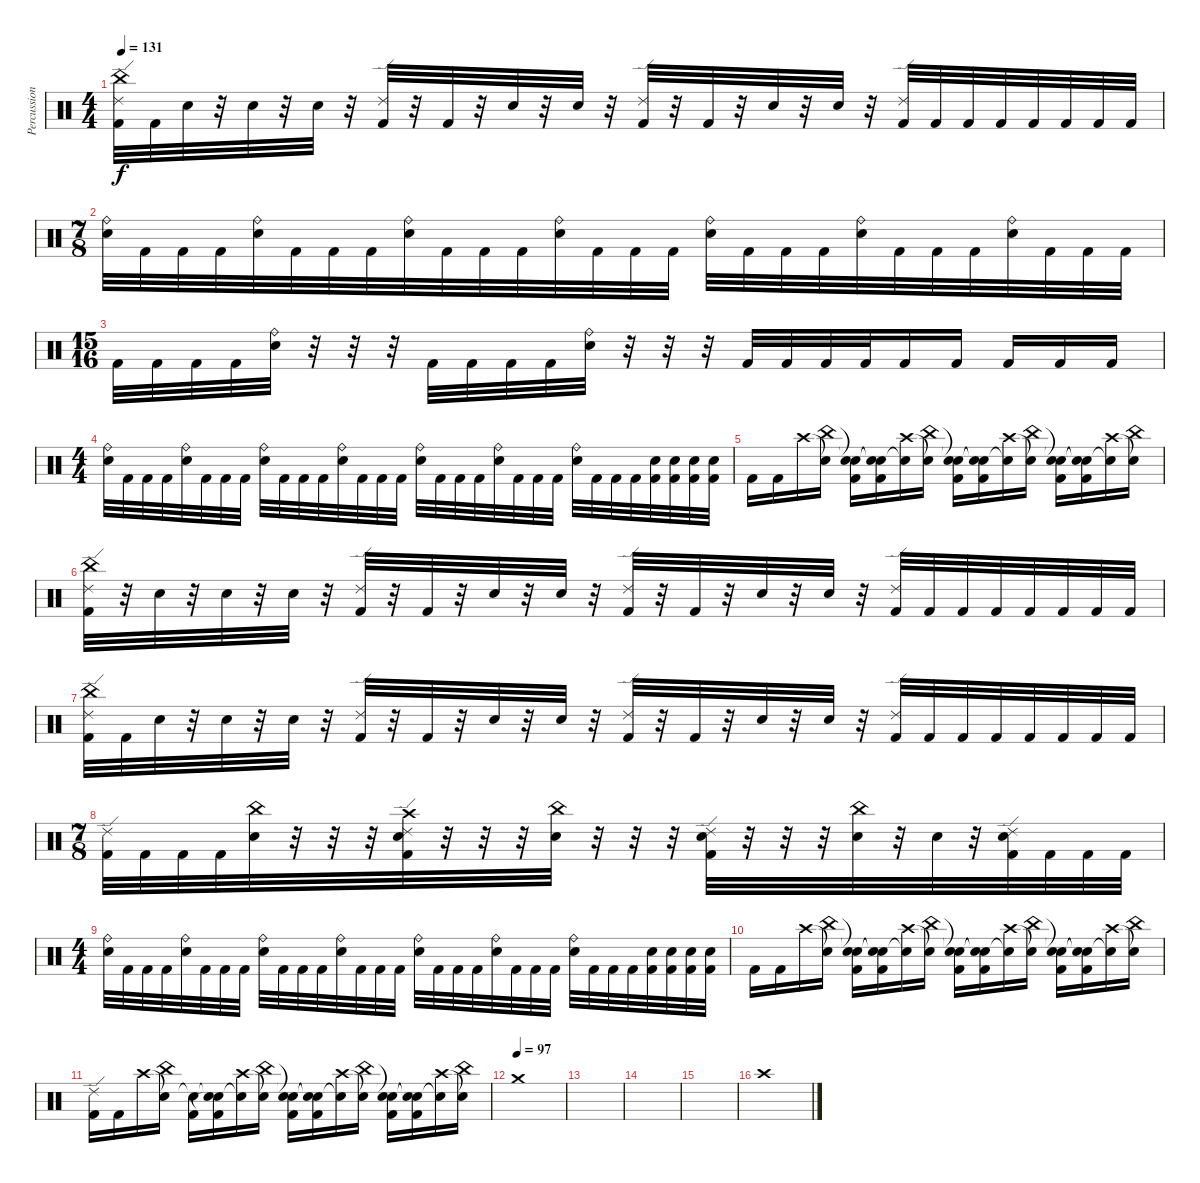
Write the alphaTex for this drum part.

\track ("Percussion" "Percussion") {instrument percussion}
\staff {score}
\articulation defaults
\ts (4 4)
\tempo 131
\clef neutral
\ks c
("China (hit)" "Ride (edge) 2" "Kick (hit) 2").32{dy f} "Kick (hit) 2".32 "Electric Snare (hit)".32 r.32 "Electric Snare (hit)".32 r.32 "Electric Snare (hit)".32 r.32 ("Ride (edge) 2" "Kick (hit) 2").32 r.32 "Kick (hit) 2".32 r.32 "Electric Snare (hit)".32 r.32 "Electric Snare (hit)".32 r.32 ("Ride (edge) 2" "Kick (hit) 2").32 r.32 "Kick (hit) 2".32 r.32 "Electric Snare (hit)".32 r.32 "Electric Snare (hit)".32 r.32 ("Ride (edge) 2" "Kick (hit) 2").32 "Kick (hit) 2".32 "Kick (hit) 2".32 "Kick (hit) 2".32 "Kick (hit) 2".32 "Kick (hit) 2".32 "Kick (hit) 2".32 "Kick (hit) 2".32 |
\ts (7 8)
("Ride (bell)" "Electric Snare (hit)").32 "Kick (hit) 2".32 "Kick (hit) 2".32 "Kick (hit) 2".32 ("Ride (bell)" "Electric Snare (hit)").32 "Kick (hit) 2".32 "Kick (hit) 2".32 "Kick (hit) 2".32 ("Ride (bell)" "Electric Snare (hit)").32 "Kick (hit) 2".32 "Kick (hit) 2".32 "Kick (hit) 2".32 ("Ride (bell)" "Electric Snare (hit)").32 "Kick (hit) 2".32 "Kick (hit) 2".32 "Kick (hit) 2".32 ("Ride (bell)" "Electric Snare (hit)").32 "Kick (hit) 2".32 "Kick (hit) 2".32 "Kick (hit) 2".32 ("Ride (bell)" "Electric Snare (hit)").32 "Kick (hit) 2".32 "Kick (hit) 2".32 "Kick (hit) 2".32 ("Ride (bell)" "Electric Snare (hit)").32 "Kick (hit) 2".32 "Kick (hit) 2".32 "Kick (hit) 2".32 |
\ts (15 16)
"Kick (hit) 2".32 "Kick (hit) 2".32 "Kick (hit) 2".32 "Kick (hit) 2".32 ("Ride (bell)" "Electric Snare (hit)").32 r.32 r.32 r.32 "Kick (hit) 2".32 "Kick (hit) 2".32 "Kick (hit) 2".32 "Kick (hit) 2".32 ("Ride (bell)" "Electric Snare (hit)").32 r.32 r.32 r.32 "Kick (hit) 2".32 "Kick (hit) 2".32 "Kick (hit) 2".32 "Kick (hit) 2".32 "Kick (hit) 2".16 "Kick (hit) 2".16 "Kick (hit) 2".16 "Kick (hit) 2".16 "Kick (hit) 2".16 |
\ts (4 4)
("Ride (bell)" "Electric Snare (hit)").32 "Kick (hit) 2".32 "Kick (hit) 2".32 "Kick (hit) 2".32 ("Ride (bell)" "Electric Snare (hit)").32 "Kick (hit) 2".32 "Kick (hit) 2".32 "Kick (hit) 2".32 ("Ride (bell)" "Electric Snare (hit)").32 "Kick (hit) 2".32 "Kick (hit) 2".32 "Kick (hit) 2".32 ("Ride (bell)" "Electric Snare (hit)").32 "Kick (hit) 2".32 "Kick (hit) 2".32 "Kick (hit) 2".32 ("Ride (bell)" "Electric Snare (hit)").32 "Kick (hit) 2".32 "Kick (hit) 2".32 "Kick (hit) 2".32 ("Ride (bell)" "Electric Snare (hit)").32 "Kick (hit) 2".32 "Kick (hit) 2".32 "Kick (hit) 2".32 ("Ride (bell)" "Electric Snare (hit)").32 "Kick (hit) 2".32 "Kick (hit) 2".32 "Kick (hit) 2".32 ("Electric Snare (hit)" "Kick (hit) 2").32 ("Electric Snare (hit)" "Kick (hit) 2").32 ("Electric Snare (hit)" "Kick (hit) 2").32 ("Electric Snare (hit)" "Kick (hit) 2").32 |
"Kick (hit) 2".16 "Kick (hit) 2".16 "Crash high (hit)".16 ("Snare (hit)"{t} "China (hit)").16 ("Snare (hit)"{t} "Snare (hit)"{t} "Kick (hit) 2").16 ("Snare (hit)"{t} "Snare (hit)"{t} "Kick (hit) 2").16 ("Crash high (hit)" "Snare (hit)"{t}).16 ("Snare (hit)"{t} "China (hit)").16 ("Snare (hit)"{t} "Snare (hit)"{t} "Kick (hit) 2").16 ("Snare (hit)"{t} "Snare (hit)"{t} "Kick (hit) 2").16 ("Crash high (hit)" "Snare (hit)"{t}).16 ("Snare (hit)"{t} "China (hit)").16 ("Snare (hit)"{t} "Snare (hit)"{t} "Kick (hit) 2").16 ("Snare (hit)"{t} "Snare (hit)"{t} "Kick (hit) 2").16 ("Crash high (hit)" "Snare (hit)"{t}).16 ("Snare (hit)"{t} "China (hit)").16 |
("China (hit)" "Ride (edge) 2" "Kick (hit) 2").32 r.32 "Electric Snare (hit)".32 r.32 "Electric Snare (hit)".32 r.32 "Electric Snare (hit)".32 r.32 ("Ride (edge) 2" "Kick (hit) 2").32 r.32 "Kick (hit) 2".32 r.32 "Electric Snare (hit)".32 r.32 "Electric Snare (hit)".32 r.32 ("Ride (edge) 2" "Kick (hit) 2").32 r.32 "Kick (hit) 2".32 r.32 "Electric Snare (hit)".32 r.32 "Electric Snare (hit)".32 r.32 ("Ride (edge) 2" "Kick (hit) 2").32 "Kick (hit) 2".32 "Kick (hit) 2".32 "Kick (hit) 2".32 "Kick (hit) 2".32 "Kick (hit) 2".32 "Kick (hit) 2".32 "Kick (hit) 2".32 |
("China (hit)" "Ride (edge) 2" "Kick (hit) 2").32 "Kick (hit) 2".32 "Electric Snare (hit)".32 r.32 "Electric Snare (hit)".32 r.32 "Electric Snare (hit)".32 r.32 ("Ride (edge) 2" "Kick (hit) 2").32 r.32 "Kick (hit) 2".32 r.32 "Electric Snare (hit)".32 r.32 "Electric Snare (hit)".32 r.32 ("Ride (edge) 2" "Kick (hit) 2").32 r.32 "Kick (hit) 2".32 r.32 "Electric Snare (hit)".32 r.32 "Electric Snare (hit)".32 r.32 ("Ride (edge) 2" "Kick (hit) 2").32 "Kick (hit) 2".32 "Kick (hit) 2".32 "Kick (hit) 2".32 "Kick (hit) 2".32 "Kick (hit) 2".32 "Kick (hit) 2".32 "Kick (hit) 2".32 |
\ts (7 8)
("Ride (edge) 2" "Kick (hit) 2").32 "Kick (hit) 2".32 "Kick (hit) 2".32 "Kick (hit) 2".32 ("China (hit)" "Electric Snare (hit)").32 r.32 r.32 r.32 ("Crash high (hit)" "Ride (edge) 2" "Electric Snare (hit)" "Kick (hit) 2").32 r.32 r.32 r.32 ("China (hit)" "Electric Snare (hit)").32 r.32 r.32 r.32 ("Ride (edge) 2" "Electric Snare (hit)" "Kick (hit) 2").32 r.32 r.32 r.32 ("China (hit)" "Electric Snare (hit)").32 r.32 "Electric Snare (hit)".32 r.32 ("Ride (edge) 2" "Electric Snare (hit)" "Kick (hit) 2").32 "Kick (hit) 2".32 "Kick (hit) 2".32 "Kick (hit) 2".32 |
\ts (4 4)
("Ride (bell)" "Electric Snare (hit)").32 "Kick (hit) 2".32 "Kick (hit) 2".32 "Kick (hit) 2".32 ("Ride (bell)" "Electric Snare (hit)").32 "Kick (hit) 2".32 "Kick (hit) 2".32 "Kick (hit) 2".32 ("Ride (bell)" "Electric Snare (hit)").32 "Kick (hit) 2".32 "Kick (hit) 2".32 "Kick (hit) 2".32 ("Ride (bell)" "Electric Snare (hit)").32 "Kick (hit) 2".32 "Kick (hit) 2".32 "Kick (hit) 2".32 ("Ride (bell)" "Electric Snare (hit)").32 "Kick (hit) 2".32 "Kick (hit) 2".32 "Kick (hit) 2".32 ("Ride (bell)" "Electric Snare (hit)").32 "Kick (hit) 2".32 "Kick (hit) 2".32 "Kick (hit) 2".32 ("Ride (bell)" "Electric Snare (hit)").32 "Kick (hit) 2".32 "Kick (hit) 2".32 "Kick (hit) 2".32 ("Electric Snare (hit)" "Kick (hit) 2").32 ("Electric Snare (hit)" "Kick (hit) 2").32 ("Electric Snare (hit)" "Kick (hit) 2").32 ("Electric Snare (hit)" "Kick (hit) 2").32 |
"Kick (hit) 2".16 "Kick (hit) 2".16 "Crash high (hit)".16 ("Snare (hit)"{t} "China (hit)").16 ("Snare (hit)"{t} "Snare (hit)"{t} "Kick (hit) 2").16 ("Snare (hit)"{t} "Snare (hit)"{t} "Kick (hit) 2").16 ("Crash high (hit)" "Snare (hit)"{t}).16 ("Snare (hit)"{t} "China (hit)").16 ("Snare (hit)"{t} "Snare (hit)"{t} "Kick (hit) 2").16 ("Snare (hit)"{t} "Snare (hit)"{t} "Kick (hit) 2").16 ("Crash high (hit)" "Snare (hit)"{t}).16 ("Snare (hit)"{t} "China (hit)").16 ("Snare (hit)"{t} "Snare (hit)"{t} "Kick (hit) 2").16 ("Snare (hit)"{t} "Snare (hit)"{t} "Kick (hit) 2").16 ("Crash high (hit)" "Snare (hit)"{t}).16 ("Snare (hit)"{t} "China (hit)").16 |
("Ride (edge) 2" "Kick (hit) 2").16 "Kick (hit) 2".16 "Crash high (hit)".16 ("Snare (hit)"{t} "China (hit)").16 ("Snare (hit)"{t} "Kick (hit) 2").16 ("Snare (hit)"{t} "Snare (hit)"{t} "Kick (hit) 2").16 ("Crash high (hit)" "Snare (hit)"{t}).16 ("Snare (hit)"{t} "China (hit)").16 ("Snare (hit)"{t} "Snare (hit)"{t} "Kick (hit) 2").16 ("Snare (hit)"{t} "Snare (hit)"{t} "Kick (hit) 2").16 ("Crash high (hit)" "Snare (hit)"{t}).16 ("Snare (hit)"{t} "China (hit)").16 ("Snare (hit)"{t} "Snare (hit)"{t} "Kick (hit) 2").16 ("Snare (hit)"{t} "Snare (hit)"{t} "Kick (hit) 2").16 ("Crash high (hit)" "Snare (hit)"{t}).16 ("Snare (hit)"{t} "China (hit)").16 |
\tempo (97)
"Crash medium (hit)".1 |
|
|
|
"Crash high (hit)".1
